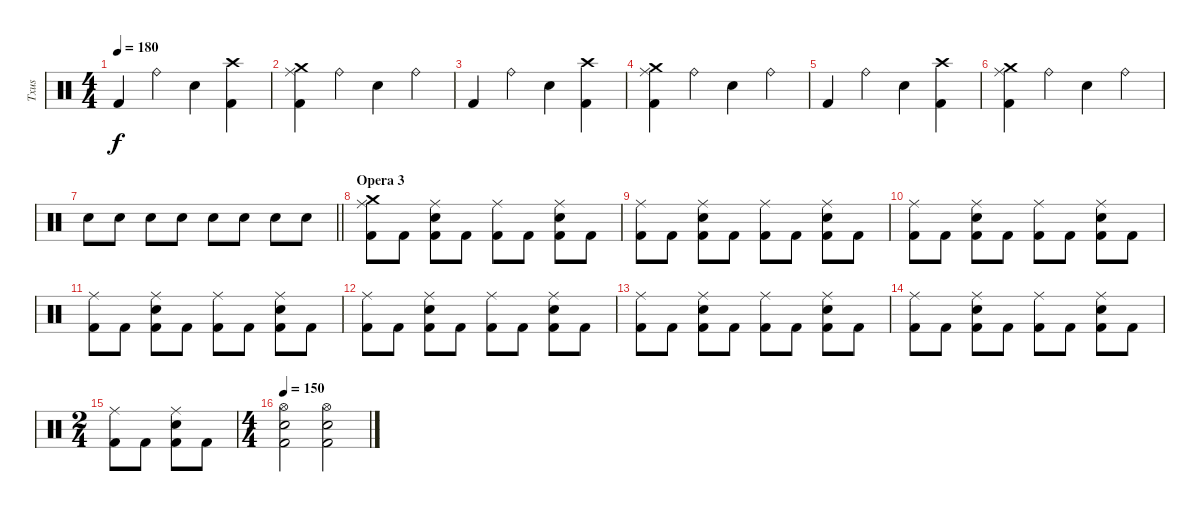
\track ("Txus" "Txus") {instrument percussion}
\staff {score}
\articulation defaults
\ts (4 4)
\tempo 180
\clef neutral
\ks c "Kick (hit) 2".4{dy f} "Ride (bell)".4 "Electric Snare (hit)".4
("Crash high (hit)" "Kick (hit) 2").4 |
("Crash medium (hit)" "Ride (middle)" "Kick (hit) 2").4 "Ride (bell)".4 "Electric Snare (hit)".4 "Ride (bell)".4 |
"Kick (hit) 2".4 "Ride (bell)".4 "Electric Snare (hit)".4 ("Crash high (hit)" "Kick (hit) 2").4 |
("Crash medium (hit)" "Ride (middle)" "Kick (hit) 2").4 "Ride (bell)".4 "Electric Snare (hit)".4 "Ride (bell)".4 |
"Kick (hit) 2".4 "Ride (bell)".4 "Electric Snare (hit)".4 ("Crash high (hit)" "Kick (hit) 2").4 |
("Crash medium (hit)" "Ride (middle)" "Kick (hit) 2").4 "Ride (bell)".4 "Electric Snare (hit)".4 "Ride (bell)".4 |
\barLineRight lightlight "Electric Snare (hit)".8 "Electric Snare (hit)".8 "Electric Snare (hit)".8 "Electric Snare (hit)".8 "Electric Snare (hit)".8 "Electric Snare (hit)".8 "Electric Snare (hit)".8 "Electric Snare (hit)".8
|
\section ("" "Opera 3")
("Crash medium (hit)" "Ride (middle)" "Kick (hit) 2").8 "Kick (hit) 2".8 ("Ride (middle)" "Electric Snare (hit)" "Kick (hit) 2").8 "Kick (hit) 2".8 ("Ride (middle)" "Kick (hit) 2").8 "Kick (hit) 2".8 ("Ride (middle)" "Electric Snare (hit)" "Kick (hit) 2").8 "Kick (hit) 2".8 |
("Ride (middle)" "Kick (hit) 2").8 "Kick (hit) 2".8 ("Ride (middle)" "Electric Snare (hit)" "Kick (hit) 2").8 "Kick (hit) 2".8 ("Ride (middle)" "Kick (hit) 2").8 "Kick (hit) 2".8 ("Ride (middle)" "Electric Snare (hit)" "Kick (hit) 2").8 "Kick (hit) 2".8 |
("Ride (middle)" "Kick (hit) 2").8 "Kick (hit) 2".8 ("Ride (middle)" "Electric Snare (hit)" "Kick (hit) 2").8 "Kick (hit) 2".8 ("Ride (middle)" "Kick (hit) 2").8 "Kick (hit) 2".8 ("Ride (middle)" "Electric Snare (hit)" "Kick (hit) 2").8 "Kick (hit) 2".8 |
("Ride (middle)" "Kick (hit) 2").8 "Kick (hit) 2".8 ("Ride (middle)" "Electric Snare (hit)" "Kick (hit) 2").8 "Kick (hit) 2".8 ("Ride (middle)" "Kick (hit) 2").8 "Kick (hit) 2".8 ("Ride (middle)" "Electric Snare (hit)" "Kick (hit) 2").8 "Kick (hit) 2".8 |
("Ride (middle)" "Kick (hit) 2").8 "Kick (hit) 2".8 ("Ride (middle)" "Electric Snare (hit)" "Kick (hit) 2").8 "Kick (hit) 2".8 ("Ride (middle)" "Kick (hit) 2").8 "Kick (hit) 2".8 ("Ride (middle)" "Electric Snare (hit)" "Kick (hit) 2").8 "Kick (hit) 2".8 |
("Ride (middle)" "Kick (hit) 2").8 "Kick (hit) 2".8 ("Ride (middle)" "Electric Snare (hit)" "Kick (hit) 2").8 "Kick (hit) 2".8 ("Ride (middle)" "Kick (hit) 2").8 "Kick (hit) 2".8 ("Ride (middle)" "Electric Snare (hit)" "Kick (hit) 2").8 "Kick (hit) 2".8 |
("Ride (middle)" "Kick (hit) 2").8 "Kick (hit) 2".8 ("Ride (middle)" "Electric Snare (hit)" "Kick (hit) 2").8 "Kick (hit) 2".8 ("Ride (middle)" "Kick (hit) 2").8 "Kick (hit) 2".8 ("Ride (middle)" "Electric Snare (hit)" "Kick (hit) 2").8 "Kick (hit) 2".8 |
\ts (2 4)
("Ride (middle)" "Kick (hit) 2").8 "Kick (hit) 2".8 ("Ride (middle)" "Electric Snare (hit)" "Kick (hit) 2").8 "Kick (hit) 2".8 |
\ts (4 4)
\tempo 150
("Hi-Hat (open)" "Electric Snare (hit)" "Kick (hit) 2").2 ("Hi-Hat (open)" "Electric Snare (hit)" "Kick (hit) 2").2
